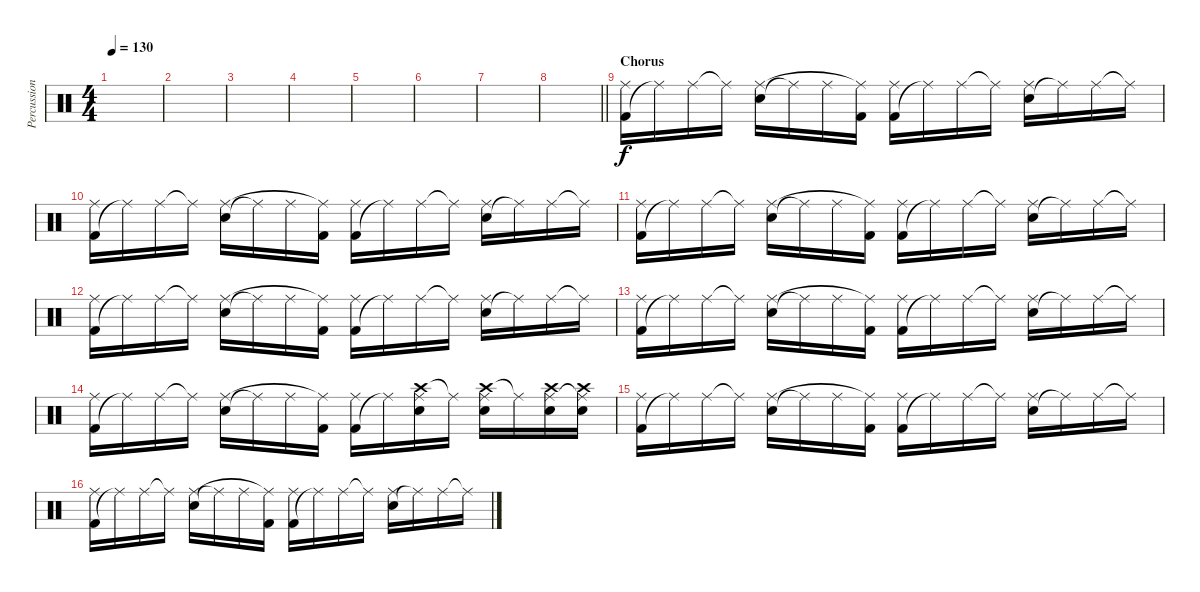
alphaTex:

\track ("Percussion" "Percussion") {instrument percussion}
\staff {score}
\articulation defaults
\ts (4 4)
\tempo 130
\clef neutral
\ks c
|
|
|
|
|
|
|
\barLineRight lightlight
|
\section ("" "Chorus")
("Kick (hit) 2" "Ride (middle)").16 "Ride (middle)"{t}.16 "Ride (middle)".16 "Ride (middle)"{t}.16 ("Snare (hit) 2" "Ride (middle)").16 "Ride (middle)"{t}.16 "Ride (middle)".16 ("Kick (hit) 2" "Ride (middle)"{t}).16 ("Kick (hit) 2" "Ride (middle)").16 "Ride (middle)"{t}.16 "Ride (middle)".16 "Ride (middle)"{t}.16 ("Snare (hit) 2" "Ride (middle)").16 "Ride (middle)"{t}.16 "Ride (middle)".16 "Ride (middle)"{t}.16 |
("Kick (hit) 2" "Ride (middle)").16 "Ride (middle)"{t}.16 "Ride (middle)".16 "Ride (middle)"{t}.16 ("Snare (hit) 2" "Ride (middle)").16 "Ride (middle)"{t}.16 "Ride (middle)".16 ("Kick (hit) 2" "Ride (middle)"{t}).16 ("Kick (hit) 2" "Ride (middle)").16 "Ride (middle)"{t}.16 "Ride (middle)".16 "Ride (middle)"{t}.16 ("Snare (hit) 2" "Ride (middle)").16 "Ride (middle)"{t}.16 "Ride (middle)".16 "Ride (middle)"{t}.16 |
("Kick (hit) 2" "Ride (middle)").16 "Ride (middle)"{t}.16 "Ride (middle)".16 "Ride (middle)"{t}.16 ("Snare (hit) 2" "Ride (middle)").16 "Ride (middle)"{t}.16 "Ride (middle)".16 ("Kick (hit) 2" "Ride (middle)"{t}).16 ("Kick (hit) 2" "Ride (middle)").16 "Ride (middle)"{t}.16 "Ride (middle)".16 "Ride (middle)"{t}.16 ("Snare (hit) 2" "Ride (middle)").16 "Ride (middle)"{t}.16 "Ride (middle)".16 "Ride (middle)"{t}.16 |
("Kick (hit) 2" "Ride (middle)").16 "Ride (middle)"{t}.16 "Ride (middle)".16 "Ride (middle)"{t}.16 ("Snare (hit) 2" "Ride (middle)").16 "Ride (middle)"{t}.16 "Ride (middle)".16 ("Kick (hit) 2" "Ride (middle)"{t}).16 ("Kick (hit) 2" "Ride (middle)").16 "Ride (middle)"{t}.16 "Ride (middle)".16 "Ride (middle)"{t}.16 ("Snare (hit) 2" "Ride (middle)").16 "Ride (middle)"{t}.16 "Ride (middle)".16 "Ride (middle)"{t}.16 |
("Kick (hit) 2" "Ride (middle)").16 "Ride (middle)"{t}.16 "Ride (middle)".16 "Ride (middle)"{t}.16 ("Snare (hit) 2" "Ride (middle)").16 "Ride (middle)"{t}.16 "Ride (middle)".16 ("Kick (hit) 2" "Ride (middle)"{t}).16 ("Kick (hit) 2" "Ride (middle)").16 "Ride (middle)"{t}.16 "Ride (middle)".16 "Ride (middle)"{t}.16 ("Snare (hit) 2" "Ride (middle)").16 "Ride (middle)"{t}.16 "Ride (middle)".16 "Ride (middle)"{t}.16 |
("Kick (hit) 2" "Ride (middle)").16 "Ride (middle)"{t}.16 "Ride (middle)".16 "Ride (middle)"{t}.16 ("Snare (hit) 2" "Ride (middle)").16 "Ride (middle)"{t}.16 "Ride (middle)".16 ("Kick (hit) 2" "Ride (middle)"{t}).16 ("Kick (hit) 2" "Ride (middle)").16 "Ride (middle)"{t}.16 ("Crash high (hit)" "Electric Snare (hit)" "Ride (middle)").16 "Ride (middle)"{t}.16 ("Crash high (hit)" "Electric Snare (hit)" "Ride (middle)").16 "Ride (middle)"{t}.16 ("Crash high (hit)" "Electric Snare (hit)" "Ride (middle)").16 ("Crash high (hit)" "Electric Snare (hit)" "Ride (middle)"{t}).16 |
("Kick (hit) 2" "Ride (middle)").16 "Ride (middle)"{t}.16 "Ride (middle)".16 "Ride (middle)"{t}.16 ("Snare (hit) 2" "Ride (middle)").16 "Ride (middle)"{t}.16 "Ride (middle)".16 ("Kick (hit) 2" "Ride (middle)"{t}).16 ("Kick (hit) 2" "Ride (middle)").16 "Ride (middle)"{t}.16 "Ride (middle)".16 "Ride (middle)"{t}.16 ("Snare (hit) 2" "Ride (middle)").16 "Ride (middle)"{t}.16 "Ride (middle)".16 "Ride (middle)"{t}.16 |
("Kick (hit) 2" "Ride (middle)").16 "Ride (middle)"{t}.16 "Ride (middle)".16 "Ride (middle)"{t}.16 ("Snare (hit) 2" "Ride (middle)").16 "Ride (middle)"{t}.16 "Ride (middle)".16 ("Kick (hit) 2" "Ride (middle)"{t}).16 ("Kick (hit) 2" "Ride (middle)").16 "Ride (middle)"{t}.16 "Ride (middle)".16 "Ride (middle)"{t}.16 ("Snare (hit) 2" "Ride (middle)").16 "Ride (middle)"{t}.16 "Ride (middle)".16 "Ride (middle)"{t}.16
